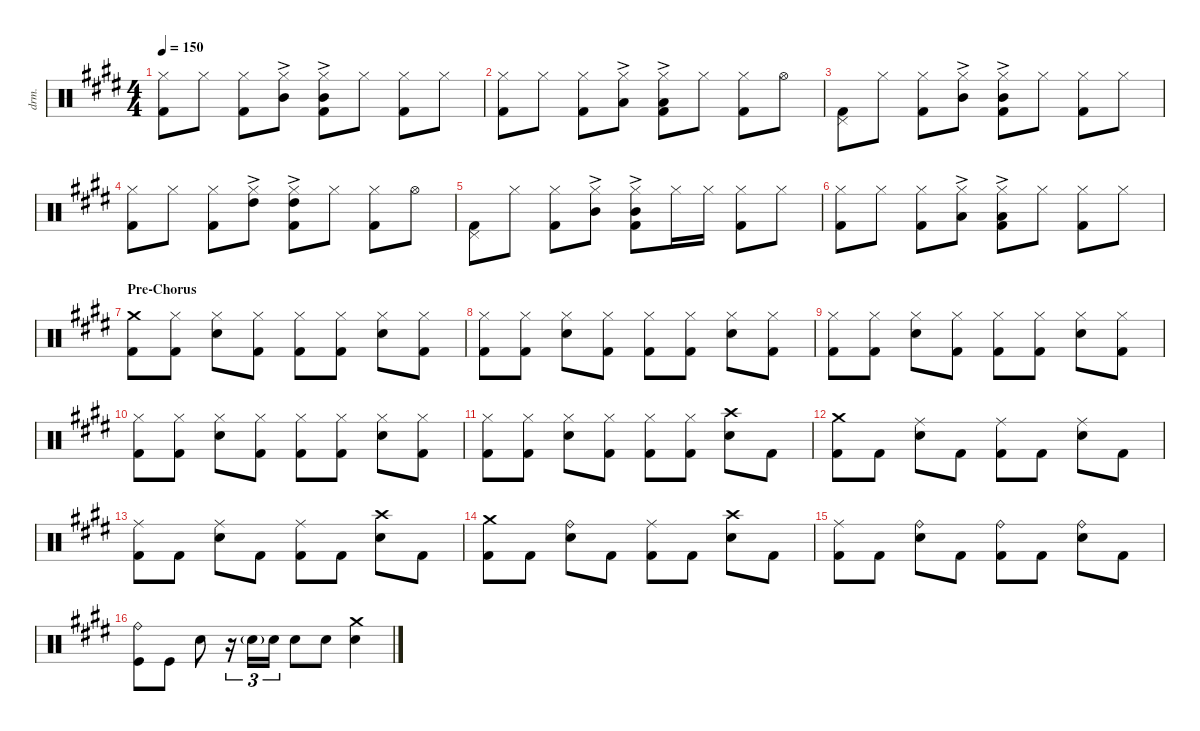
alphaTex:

\defaultSystemsLayout 4
\hideDynamics
\bracketExtendMode nobrackets
\otherSystemsTrackNameOrientation horizontal
\track ("Drums - S. Copeland" "drm.") {instrument percussion}
\staff {score}
\articulation defaults
\ts (4 4)
\tempo 150
\clef neutral
\ks c#minor
("Hi-Hat (closed)"{acc forcenatural} "Kick (hit) 2"{acc forcenatural}).8{dy mf beam Down} "Hi-Hat (closed)"{acc forcenatural}.8{beam Down} ("Hi-Hat (closed)"{acc forcenatural} "Kick (hit) 2"{acc forcenatural}).8{beam Down} ("Hi-Hat (closed)"{acc forcenatural} "Mid Tom (hit)"{ac acc forcenatural}).8{beam Down} ("Hi-Hat (closed)"{acc forcenatural} "Kick (hit) 2"{acc forcenatural} "Mid Tom (hit)"{ac acc forcenatural}).8{beam Down} "Hi-Hat (closed)"{acc forcenatural}.8{beam Down} ("Hi-Hat (closed)"{acc forcenatural} "Kick (hit) 2"{acc forcenatural}).8{beam Down} "Hi-Hat (closed)"{acc forcenatural}.8{beam Down} |
("Hi-Hat (closed)"{acc forcenatural} "Kick (hit) 2"{acc forcenatural}).8{beam Down} "Hi-Hat (closed)"{acc forcenatural}.8{beam Down} ("Hi-Hat (closed)"{acc forcenatural} "Kick (hit) 2"{acc forcenatural}).8{beam Down} ("Hi-Hat (closed)"{acc forcenatural} "Low Tom (hit)"{ac acc forcenatural}).8{beam Down} ("Hi-Hat (closed)"{acc forcenatural} "Kick (hit) 2"{acc forcenatural} "Low Tom (hit)"{ac acc forcenatural}).8{beam Down} "Hi-Hat (closed)"{acc forcenatural}.8{beam Down} ("Hi-Hat (closed)"{acc forcenatural} "Kick (hit) 2"{acc forcenatural}).8{beam Down} "Hi-Hat (open)"{acc forcenatural}.8{beam Down} |
("Pedal Hi-Hat (hit)"{acc forcenatural} "Kick (hit) 2"{acc forcenatural}).8{beam Down} "Hi-Hat (closed)"{acc forcenatural}.8{beam Down} ("Hi-Hat (closed)"{acc forcenatural} "Kick (hit) 2"{acc forcenatural}).8{beam Down} ("Hi-Hat (closed)"{acc forcenatural} "Mid Tom (hit)"{ac acc forcenatural}).8{beam Down} ("Hi-Hat (closed)"{acc forcenatural} "Kick (hit) 2"{acc forcenatural} "Mid Tom (hit)"{ac acc forcenatural}).8{beam Down} "Hi-Hat (closed)"{acc forcenatural}.8{beam Down} ("Hi-Hat (closed)"{acc forcenatural} "Kick (hit) 2"{acc forcenatural}).8{beam Down} "Hi-Hat (closed)"{acc forcenatural}.8{beam Down} |
("Hi-Hat (closed)"{acc forcenatural} "Kick (hit) 2"{acc forcenatural}).8{beam Down} "Hi-Hat (closed)"{acc forcenatural}.8{beam Down} ("Hi-Hat (closed)"{acc forcenatural} "Kick (hit) 2"{acc forcenatural}).8{beam Down} ("Hi-Hat (closed)"{acc forcenatural} "High Tom (hit)"{ac acc forcenatural}).8{beam Down} ("Hi-Hat (closed)"{acc forcenatural} "Kick (hit) 2"{acc forcenatural} "High Tom (hit)"{ac acc forcenatural}).8{beam Down} "Hi-Hat (closed)"{acc forcenatural}.8{beam Down} ("Hi-Hat (closed)"{acc forcenatural} "Kick (hit) 2"{acc forcenatural}).8{beam Down} "Hi-Hat (open)"{acc forcenatural}.8{beam Down} |
("Pedal Hi-Hat (hit)"{acc forcenatural} "Kick (hit) 2"{acc forcenatural}).8{beam Down} "Hi-Hat (closed)"{acc forcenatural}.8{beam Down} ("Hi-Hat (closed)"{acc forcenatural} "Kick (hit) 2"{acc forcenatural}).8{beam Down} ("Hi-Hat (closed)"{acc forcenatural} "Mid Tom (hit)"{ac acc forcenatural}).8{beam Down} ("Hi-Hat (closed)"{acc forcenatural} "Kick (hit) 2"{acc forcenatural} "Mid Tom (hit)"{ac acc forcenatural}).8{beam Down} "Hi-Hat (closed)"{acc forcenatural}.16{beam Down} "Hi-Hat (closed)"{acc forcenatural}.16{beam Down} ("Hi-Hat (closed)"{acc forcenatural} "Kick (hit) 2"{acc forcenatural}).8{beam Down} "Hi-Hat (closed)"{acc forcenatural}.8{beam Down} |
("Hi-Hat (closed)"{acc forcenatural} "Kick (hit) 2"{acc forcenatural}).8{beam Down} "Hi-Hat (closed)"{acc forcenatural}.8{beam Down} ("Hi-Hat (closed)"{acc forcenatural} "Kick (hit) 2"{acc forcenatural}).8{beam Down} ("Hi-Hat (closed)"{acc forcenatural} "Low Tom (hit)"{ac acc forcenatural}).8{beam Down} ("Hi-Hat (closed)"{acc forcenatural} "Kick (hit) 2"{acc forcenatural} "Low Tom (hit)"{ac acc forcenatural}).8{beam Down} "Hi-Hat (closed)"{acc forcenatural}.8{beam Down} ("Hi-Hat (closed)"{acc forcenatural} "Kick (hit) 2"{acc forcenatural}).8{beam Down} "Hi-Hat (closed)"{acc forcenatural}.8{beam Down} |
\section ("" "Pre-Chorus")
("Kick (hit) 2"{acc forcenatural} "Crash medium (hit)"{acc forcenatural}).8{beam Down} ("Hi-Hat (closed)"{acc forcenatural} "Kick (hit) 2"{acc forcenatural}).8{beam Down} ("Hi-Hat (closed)"{acc forcenatural} "Snare (hit) 2"{acc forcenatural}).8{beam Down} ("Hi-Hat (closed)"{acc forcenatural} "Kick (hit) 2"{acc forcenatural}).8{beam Down} ("Hi-Hat (closed)"{acc forcenatural} "Kick (hit) 2"{acc forcenatural}).8{beam Down} ("Hi-Hat (closed)"{acc forcenatural} "Kick (hit) 2"{acc forcenatural}).8{beam Down} ("Hi-Hat (closed)"{acc forcenatural} "Snare (hit) 2"{acc forcenatural}).8{beam Down} ("Hi-Hat (closed)"{acc forcenatural} "Kick (hit) 2"{acc forcenatural}).8{beam Down} |
("Hi-Hat (closed)"{acc forcenatural} "Kick (hit) 2"{acc forcenatural}).8{beam Down} ("Hi-Hat (closed)"{acc forcenatural} "Kick (hit) 2"{acc forcenatural}).8{beam Down} ("Hi-Hat (closed)"{acc forcenatural} "Snare (hit) 2"{acc forcenatural}).8{beam Down} ("Hi-Hat (closed)"{acc forcenatural} "Kick (hit) 2"{acc forcenatural}).8{beam Down} ("Hi-Hat (closed)"{acc forcenatural} "Kick (hit) 2"{acc forcenatural}).8{beam Down} ("Hi-Hat (closed)"{acc forcenatural} "Kick (hit) 2"{acc forcenatural}).8{beam Down} ("Hi-Hat (closed)"{acc forcenatural} "Snare (hit) 2"{acc forcenatural}).8{beam Down} ("Hi-Hat (closed)"{acc forcenatural} "Kick (hit) 2"{acc forcenatural}).8{beam Down} |
("Hi-Hat (closed)"{acc forcenatural} "Kick (hit) 2"{acc forcenatural}).8{beam Down} ("Hi-Hat (closed)"{acc forcenatural} "Kick (hit) 2"{acc forcenatural}).8{beam Down} ("Hi-Hat (closed)"{acc forcenatural} "Snare (hit) 2"{acc forcenatural}).8{beam Down} ("Hi-Hat (closed)"{acc forcenatural} "Kick (hit) 2"{acc forcenatural}).8{beam Down} ("Hi-Hat (closed)"{acc forcenatural} "Kick (hit) 2"{acc forcenatural}).8{beam Down} ("Hi-Hat (closed)"{acc forcenatural} "Kick (hit) 2"{acc forcenatural}).8{beam Down} ("Hi-Hat (closed)"{acc forcenatural} "Snare (hit) 2"{acc forcenatural}).8{beam Down} ("Hi-Hat (closed)"{acc forcenatural} "Kick (hit) 2"{acc forcenatural}).8{beam Down} |
("Hi-Hat (closed)"{acc forcenatural} "Kick (hit) 2"{acc forcenatural}).8{beam Down} ("Hi-Hat (closed)"{acc forcenatural} "Kick (hit) 2"{acc forcenatural}).8{beam Down} ("Hi-Hat (closed)"{acc forcenatural} "Snare (hit) 2"{acc forcenatural}).8{beam Down} ("Hi-Hat (closed)"{acc forcenatural} "Kick (hit) 2"{acc forcenatural}).8{beam Down} ("Hi-Hat (closed)"{acc forcenatural} "Kick (hit) 2"{acc forcenatural}).8{beam Down} ("Hi-Hat (closed)"{acc forcenatural} "Kick (hit) 2"{acc forcenatural}).8{beam Down} ("Hi-Hat (closed)"{acc forcenatural} "Snare (hit) 2"{acc forcenatural}).8{beam Down} ("Hi-Hat (closed)"{acc forcenatural} "Kick (hit) 2"{acc forcenatural}).8{beam Down} |
("Hi-Hat (closed)"{acc forcenatural} "Kick (hit) 2"{acc forcenatural}).8{beam Down} ("Hi-Hat (closed)"{acc forcenatural} "Kick (hit) 2"{acc forcenatural}).8{beam Down} ("Hi-Hat (closed)"{acc forcenatural} "Snare (hit) 2"{acc forcenatural}).8{beam Down} ("Hi-Hat (closed)"{acc forcenatural} "Kick (hit) 2"{acc forcenatural}).8{beam Down} ("Hi-Hat (closed)"{acc forcenatural} "Kick (hit) 2"{acc forcenatural}).8{beam Down} ("Hi-Hat (closed)"{acc forcenatural} "Kick (hit) 2"{acc forcenatural}).8{beam Down} ("Snare (hit) 2"{acc forcenatural} "Crash high (hit)"{acc forcenatural}).8{beam Down} "Kick (hit) 2"{acc forcenatural}.8{beam Down} |
("Kick (hit) 2"{acc forcenatural} "Crash medium (hit)"{acc forcenatural}).8{beam Down} "Kick (hit) 2"{acc forcenatural}.8{beam Down} ("Snare (hit) 2"{acc forcenatural} "Ride (middle)"{acc forcenatural}).8{beam Down} "Kick (hit) 2"{acc forcenatural}.8{beam Down} ("Kick (hit) 2"{acc forcenatural} "Ride (middle)"{acc forcenatural}).8{beam Down} "Kick (hit) 2"{acc forcenatural}.8{beam Down} ("Snare (hit) 2"{acc forcenatural} "Ride (middle)"{acc forcenatural}).8{beam Down} "Kick (hit) 2"{acc forcenatural}.8{beam Down} |
("Kick (hit) 2"{acc forcenatural} "Ride (middle)"{acc forcenatural}).8{beam Down} "Kick (hit) 2"{acc forcenatural}.8{beam Down} ("Snare (hit) 2"{acc forcenatural} "Ride (middle)"{acc forcenatural}).8{beam Down} "Kick (hit) 2"{acc forcenatural}.8{beam Down} ("Kick (hit) 2"{acc forcenatural} "Ride (middle)"{acc forcenatural}).8{beam Down} "Kick (hit) 2"{acc forcenatural}.8{beam Down} ("Snare (hit) 2"{acc forcenatural} "Crash high (hit)"{acc forcenatural}).8{beam Down} "Kick (hit) 2"{acc forcenatural}.8{beam Down} |
("Kick (hit) 2"{acc forcenatural} "Crash medium (hit)"{acc forcenatural}).8{beam Down} "Kick (hit) 2"{acc forcenatural}.8{beam Down} ("Snare (hit) 2"{acc forcenatural} "Ride (bell)"{acc forcenatural}).8{beam Down} "Kick (hit) 2"{acc forcenatural}.8{beam Down} ("Kick (hit) 2"{acc forcenatural} "Ride (middle)"{acc forcenatural}).8{beam Down} "Kick (hit) 2"{acc forcenatural}.8{beam Down} ("Snare (hit) 2"{acc forcenatural} "Crash high (hit)"{acc forcenatural}).8{beam Down} "Kick (hit) 2"{acc forcenatural}.8{beam Down} |
("Kick (hit) 2"{acc forcenatural} "Ride (middle)"{acc forcenatural}).8{beam Down} "Kick (hit) 2"{acc forcenatural}.8{beam Down} ("Snare (hit) 2"{acc forcenatural} "Ride (bell)"{acc forcenatural}).8{beam Down} "Kick (hit) 2"{acc forcenatural}.8{beam Down} ("Kick (hit) 2"{acc forcenatural} "Ride (bell)"{acc forcenatural}).8{beam Down} "Kick (hit) 2"{acc forcenatural}.8{beam Down} ("Snare (hit) 2"{acc forcenatural} "Ride (bell)"{acc forcenatural}).8{beam Down} "Kick (hit) 2"{acc forcenatural}.8{beam Down} |
("Ride (bell)"{acc forcenatural} "Kick (hit)"{acc forcenatural}).8{beam Down} "Kick (hit)"{acc forcenatural}.8{beam Down} "Snare (hit) 2"{acc forcenatural}.8{beam Down} r.16{tu (3 2) beam Down} "Snare (hit) 2"{g acc forcenatural}.16{tu (3 2) beam Down} "Snare (hit) 2"{acc forcenatural}.16{tu (3 2) beam Down} "Snare (hit) 2"{acc forcenatural}.8{beam Down} "Snare (hit) 2"{acc forcenatural}.8{beam Down} ("Snare (hit) 2"{acc forcenatural} "Crash medium (hit)"{acc forcenatural}).4{beam Down}
